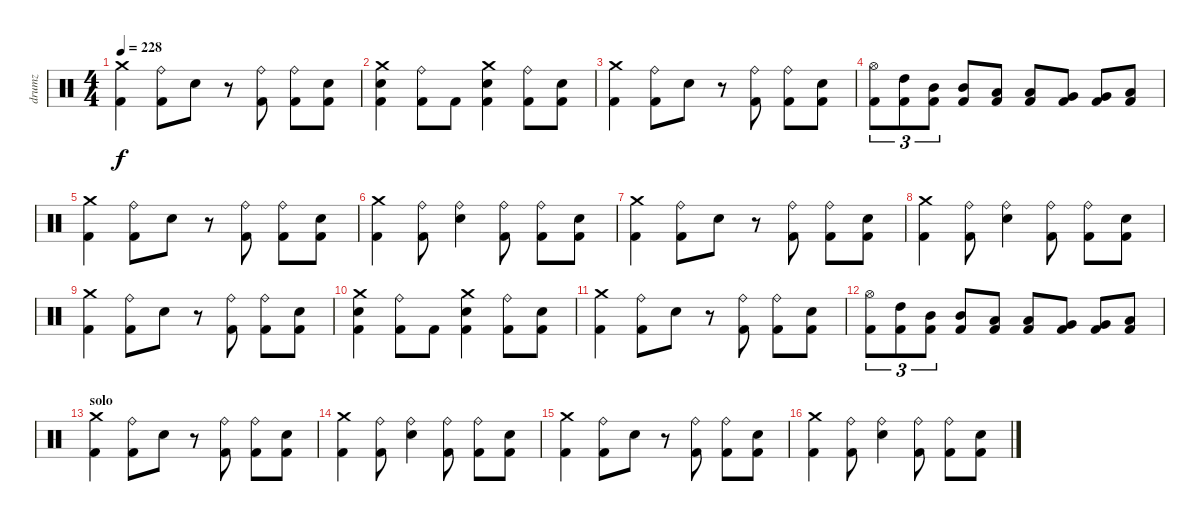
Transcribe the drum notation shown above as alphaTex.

\track ("drumz" "drumz") {instrument percussion}
\staff {score}
\articulation defaults
\ts (4 4)
\tempo 228
\clef neutral
\ks c
("Crash medium (hit)" "Kick (hit) 2").4{dy f} ("Ride (bell)" "Kick (hit) 2").8 "Snare (hit) 2".8 r.8 ("Ride (bell)" "Kick (hit) 2").8 ("Ride (bell)" "Kick (hit) 2").8 ("Snare (hit) 2" "Kick (hit) 2").8 |
("Crash medium (hit)" "Snare (hit) 2" "Kick (hit) 2").4 ("Ride (bell)" "Kick (hit) 2").8 "Kick (hit) 2".8 ("Crash medium (hit)" "Snare (hit) 2" "Kick (hit) 2").4 ("Ride (bell)" "Kick (hit) 2").8 ("Snare (hit) 2" "Kick (hit) 2").8 |
("Crash medium (hit)" "Kick (hit) 2").4 ("Ride (bell)" "Kick (hit) 2").8 "Snare (hit) 2".8 r.8 ("Ride (bell)" "Kick (hit) 2").8 ("Ride (bell)" "Kick (hit) 2").8 ("Snare (hit) 2" "Kick (hit) 2").8 |
("Hi-Hat (open)" "Kick (hit) 2").8{tu (3 2)} ("High Tom (hit)" "Kick (hit) 2").8{tu (3 2)} ("Mid Tom (hit)" "Kick (hit) 2").8{tu (3 2)} ("Mid Tom (hit)" "Kick (hit) 2").8 ("Low Tom (hit)" "Kick (hit) 2").8 ("Low Tom (hit)" "Kick (hit) 2").8 ("Very Low Tom (hit)" "Kick (hit) 2").8 ("Very Low Tom (hit)" "Kick (hit) 2").8 ("Low Floor Tom (hit)" "Kick (hit) 2").8 |
("Crash medium (hit)" "Kick (hit) 2").4 ("Ride (bell)" "Kick (hit) 2").8 "Snare (hit) 2".8 r.8 ("Ride (bell)" "Kick (hit) 2").8 ("Ride (bell)" "Kick (hit) 2").8 ("Snare (hit) 2" "Kick (hit) 2").8 |
("Crash medium (hit)" "Kick (hit) 2").4 ("Ride (bell)" "Kick (hit) 2").8 ("Ride (bell)" "Snare (hit) 2").4 ("Ride (bell)" "Kick (hit) 2").8 ("Ride (bell)" "Kick (hit) 2").8 ("Snare (hit) 2" "Kick (hit) 2").8 |
("Crash medium (hit)" "Kick (hit) 2").4 ("Ride (bell)" "Kick (hit) 2").8 "Snare (hit) 2".8 r.8 ("Ride (bell)" "Kick (hit) 2").8 ("Ride (bell)" "Kick (hit) 2").8 ("Snare (hit) 2" "Kick (hit) 2").8 |
("Crash medium (hit)" "Kick (hit) 2").4 ("Ride (bell)" "Kick (hit) 2").8 ("Ride (bell)" "Snare (hit) 2").4 ("Ride (bell)" "Kick (hit) 2").8 ("Ride (bell)" "Kick (hit) 2").8 ("Snare (hit) 2" "Kick (hit) 2").8 |
("Crash medium (hit)" "Kick (hit) 2").4 ("Ride (bell)" "Kick (hit) 2").8 "Snare (hit) 2".8 r.8 ("Ride (bell)" "Kick (hit) 2").8 ("Ride (bell)" "Kick (hit) 2").8 ("Snare (hit) 2" "Kick (hit) 2").8 |
("Crash medium (hit)" "Snare (hit) 2" "Kick (hit) 2").4 ("Ride (bell)" "Kick (hit) 2").8 "Kick (hit) 2".8 ("Crash medium (hit)" "Snare (hit) 2" "Kick (hit) 2").4 ("Ride (bell)" "Kick (hit) 2").8 ("Snare (hit) 2" "Kick (hit) 2").8 |
("Crash medium (hit)" "Kick (hit) 2").4 ("Ride (bell)" "Kick (hit) 2").8 "Snare (hit) 2".8 r.8 ("Ride (bell)" "Kick (hit) 2").8 ("Ride (bell)" "Kick (hit) 2").8 ("Snare (hit) 2" "Kick (hit) 2").8 |
("Hi-Hat (open)" "Kick (hit) 2").8{tu (3 2)} ("High Tom (hit)" "Kick (hit) 2").8{tu (3 2)} ("Mid Tom (hit)" "Kick (hit) 2").8{tu (3 2)} ("Mid Tom (hit)" "Kick (hit) 2").8 ("Low Tom (hit)" "Kick (hit) 2").8 ("Low Tom (hit)" "Kick (hit) 2").8 ("Very Low Tom (hit)" "Kick (hit) 2").8 ("Very Low Tom (hit)" "Kick (hit) 2").8 ("Low Floor Tom (hit)" "Kick (hit) 2").8 |
\section ("" "solo")
("Crash medium (hit)" "Kick (hit) 2").4 ("Ride (bell)" "Kick (hit) 2").8 "Snare (hit) 2".8 r.8 ("Ride (bell)" "Kick (hit) 2").8 ("Ride (bell)" "Kick (hit) 2").8 ("Snare (hit) 2" "Kick (hit) 2").8 |
("Crash medium (hit)" "Kick (hit) 2").4 ("Ride (bell)" "Kick (hit) 2").8 ("Ride (bell)" "Snare (hit) 2").4 ("Ride (bell)" "Kick (hit) 2").8 ("Ride (bell)" "Kick (hit) 2").8 ("Snare (hit) 2" "Kick (hit) 2").8 |
("Crash medium (hit)" "Kick (hit) 2").4 ("Ride (bell)" "Kick (hit) 2").8 "Snare (hit) 2".8 r.8 ("Ride (bell)" "Kick (hit) 2").8 ("Ride (bell)" "Kick (hit) 2").8 ("Snare (hit) 2" "Kick (hit) 2").8 |
("Crash medium (hit)" "Kick (hit) 2").4 ("Ride (bell)" "Kick (hit) 2").8 ("Ride (bell)" "Snare (hit) 2").4 ("Ride (bell)" "Kick (hit) 2").8 ("Ride (bell)" "Kick (hit) 2").8 ("Snare (hit) 2" "Kick (hit) 2").8
